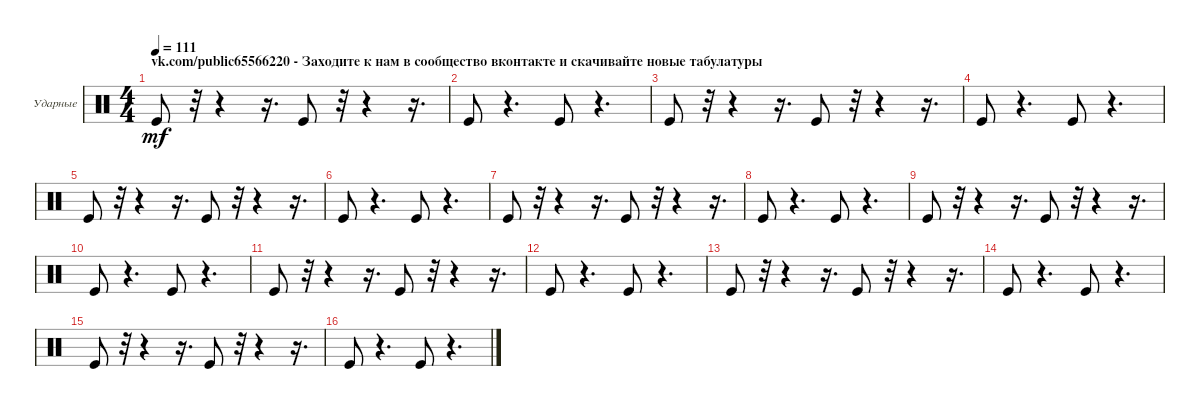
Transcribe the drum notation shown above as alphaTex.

\bracketExtendMode groupsimilarinstruments
\firstSystemTrackNameOrientation horizontal
\otherSystemsTrackNameOrientation horizontal
\track ("Ударные" "Ударные") {instrument percussion}
\staff {score}
\articulation defaults
\ts (4 4)
\section ("" "vk.com/public65566220 - Заходите к нам в сообщество вконтакте и скачивайте новые табулатуры")
\tempo 111
\clef neutral
\ks c "Kick (hit)".8{dy mf}
r.32 r.4 r.16{d} "Kick (hit)".8 r.32 r.4 r.16{d} |
"Kick (hit)".8 r.4{d} "Kick (hit)".8 r.4{d} |
"Kick (hit)".8 r.32 r.4 r.16{d} "Kick (hit)".8 r.32 r.4 r.16{d} |
"Kick (hit)".8 r.4{d} "Kick (hit)".8 r.4{d} |
"Kick (hit)".8 r.32 r.4 r.16{d} "Kick (hit)".8 r.32 r.4 r.16{d} |
"Kick (hit)".8 r.4{d} "Kick (hit)".8 r.4{d} |
"Kick (hit)".8 r.32 r.4 r.16{d} "Kick (hit)".8 r.32 r.4 r.16{d} |
"Kick (hit)".8 r.4{d} "Kick (hit)".8 r.4{d} |
"Kick (hit)".8 r.32 r.4 r.16{d} "Kick (hit)".8 r.32 r.4 r.16{d} |
"Kick (hit)".8 r.4{d} "Kick (hit)".8 r.4{d} |
"Kick (hit)".8 r.32 r.4 r.16{d} "Kick (hit)".8 r.32 r.4 r.16{d} |
"Kick (hit)".8 r.4{d} "Kick (hit)".8 r.4{d} |
"Kick (hit)".8 r.32 r.4 r.16{d} "Kick (hit)".8 r.32 r.4 r.16{d} |
"Kick (hit)".8 r.4{d} "Kick (hit)".8 r.4{d} |
"Kick (hit)".8 r.32 r.4 r.16{d} "Kick (hit)".8 r.32 r.4 r.16{d} |
"Kick (hit)".8 r.4{d} "Kick (hit)".8 r.4{d}
